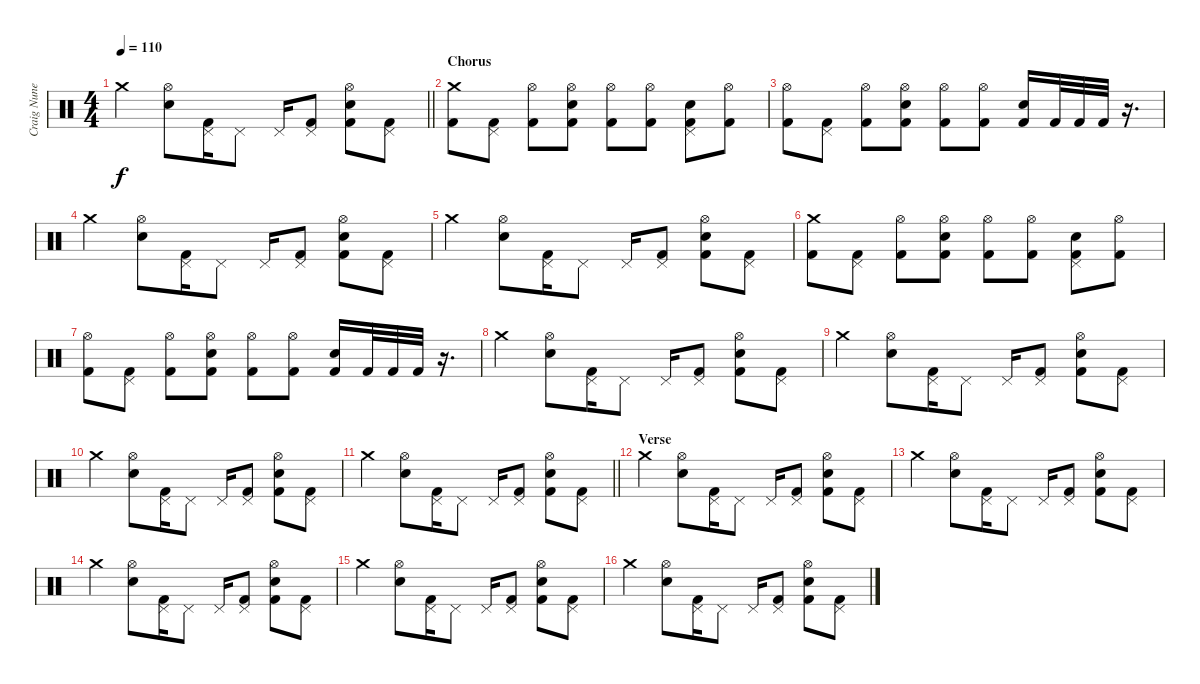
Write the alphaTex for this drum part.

\track ("Craig Nunenmacher" "Craig Nune") {instrument percussion}
\staff {score}
\articulation defaults
\ts (4 4)
\tempo 110
\clef neutral
\barLineRight lightlight
\ks c "Crash medium (hit)".4{dy f}
("Hi-Hat (open)" "Snare (hit) 2").8 ("Pedal Hi-Hat (hit)" "Kick (hit) 2").16 "Pedal Hi-Hat (hit)".8 "Pedal Hi-Hat (hit)".16 ("Pedal Hi-Hat (hit)" "Kick (hit) 2").8 ("Hi-Hat (open)" "Snare (hit) 2" "Kick (hit) 2").8 ("Pedal Hi-Hat (hit)" "Kick (hit) 2").8 |
\section ("" "Chorus")
("Crash medium (hit)" "Kick (hit) 2").8 ("Pedal Hi-Hat (hit)" "Kick (hit) 2").8 ("Hi-Hat (open)" "Kick (hit) 2").8 ("Hi-Hat (open)" "Snare (hit) 2" "Kick (hit) 2").8 ("Hi-Hat (open)" "Kick (hit) 2").8 ("Hi-Hat (open)" "Kick (hit) 2").8 ("Pedal Hi-Hat (hit)" "Snare (hit) 2" "Kick (hit) 2").8 ("Hi-Hat (open)" "Kick (hit) 2").8 |
("Hi-Hat (open)" "Kick (hit) 2").8 ("Pedal Hi-Hat (hit)" "Kick (hit) 2").8 ("Hi-Hat (open)" "Kick (hit) 2").8 ("Hi-Hat (open)" "Snare (hit) 2" "Kick (hit) 2").8 ("Hi-Hat (open)" "Kick (hit) 2").8 ("Hi-Hat (open)" "Kick (hit) 2").8 ("Snare (hit) 2" "Kick (hit) 2").16 "Kick (hit) 2".32 "Kick (hit) 2".32 "Kick (hit) 2".32 r.16{d} |
"Crash medium (hit)".4 ("Hi-Hat (open)" "Snare (hit) 2").8 ("Pedal Hi-Hat (hit)" "Kick (hit) 2").16 "Pedal Hi-Hat (hit)".8 "Pedal Hi-Hat (hit)".16 ("Pedal Hi-Hat (hit)" "Kick (hit) 2").8 ("Hi-Hat (open)" "Snare (hit) 2" "Kick (hit) 2").8 ("Pedal Hi-Hat (hit)" "Kick (hit) 2").8 |
"Crash medium (hit)".4 ("Hi-Hat (open)" "Snare (hit) 2").8 ("Pedal Hi-Hat (hit)" "Kick (hit) 2").16 "Pedal Hi-Hat (hit)".8 "Pedal Hi-Hat (hit)".16 ("Pedal Hi-Hat (hit)" "Kick (hit) 2").8 ("Hi-Hat (open)" "Snare (hit) 2" "Kick (hit) 2").8 ("Pedal Hi-Hat (hit)" "Kick (hit) 2").8 |
("Crash medium (hit)" "Kick (hit) 2").8 ("Pedal Hi-Hat (hit)" "Kick (hit) 2").8 ("Hi-Hat (open)" "Kick (hit) 2").8 ("Hi-Hat (open)" "Snare (hit) 2" "Kick (hit) 2").8 ("Hi-Hat (open)" "Kick (hit) 2").8 ("Hi-Hat (open)" "Kick (hit) 2").8 ("Pedal Hi-Hat (hit)" "Snare (hit) 2" "Kick (hit) 2").8 ("Hi-Hat (open)" "Kick (hit) 2").8 |
("Hi-Hat (open)" "Kick (hit) 2").8 ("Pedal Hi-Hat (hit)" "Kick (hit) 2").8 ("Hi-Hat (open)" "Kick (hit) 2").8 ("Hi-Hat (open)" "Snare (hit) 2" "Kick (hit) 2").8 ("Hi-Hat (open)" "Kick (hit) 2").8 ("Hi-Hat (open)" "Kick (hit) 2").8 ("Snare (hit) 2" "Kick (hit) 2").16 "Kick (hit) 2".32 "Kick (hit) 2".32 "Kick (hit) 2".32 r.16{d} |
"Crash medium (hit)".4 ("Hi-Hat (open)" "Snare (hit) 2").8 ("Pedal Hi-Hat (hit)" "Kick (hit) 2").16 "Pedal Hi-Hat (hit)".8 "Pedal Hi-Hat (hit)".16 ("Pedal Hi-Hat (hit)" "Kick (hit) 2").8 ("Hi-Hat (open)" "Snare (hit) 2" "Kick (hit) 2").8 ("Pedal Hi-Hat (hit)" "Kick (hit) 2").8 |
"Crash medium (hit)".4 ("Hi-Hat (open)" "Snare (hit) 2").8 ("Pedal Hi-Hat (hit)" "Kick (hit) 2").16 "Pedal Hi-Hat (hit)".8 "Pedal Hi-Hat (hit)".16 ("Pedal Hi-Hat (hit)" "Kick (hit) 2").8 ("Hi-Hat (open)" "Snare (hit) 2" "Kick (hit) 2").8 ("Pedal Hi-Hat (hit)" "Kick (hit) 2").8 |
"Crash medium (hit)".4 ("Hi-Hat (open)" "Snare (hit) 2").8 ("Pedal Hi-Hat (hit)" "Kick (hit) 2").16 "Pedal Hi-Hat (hit)".8 "Pedal Hi-Hat (hit)".16 ("Pedal Hi-Hat (hit)" "Kick (hit) 2").8 ("Hi-Hat (open)" "Snare (hit) 2" "Kick (hit) 2").8 ("Pedal Hi-Hat (hit)" "Kick (hit) 2").8 |
\barLineRight lightlight "Crash medium (hit)".4
("Hi-Hat (open)" "Snare (hit) 2").8 ("Pedal Hi-Hat (hit)" "Kick (hit) 2").16 "Pedal Hi-Hat (hit)".8 "Pedal Hi-Hat (hit)".16 ("Pedal Hi-Hat (hit)" "Kick (hit) 2").8 ("Hi-Hat (open)" "Snare (hit) 2" "Kick (hit) 2").8 ("Pedal Hi-Hat (hit)" "Kick (hit) 2").8 |
\section ("" "Verse")
"Crash medium (hit)".4 ("Hi-Hat (open)" "Snare (hit) 2").8 ("Pedal Hi-Hat (hit)" "Kick (hit) 2").16 "Pedal Hi-Hat (hit)".8 "Pedal Hi-Hat (hit)".16 ("Pedal Hi-Hat (hit)" "Kick (hit) 2").8 ("Hi-Hat (open)" "Snare (hit) 2" "Kick (hit) 2").8 ("Pedal Hi-Hat (hit)" "Kick (hit) 2").8 |
"Crash medium (hit)".4 ("Hi-Hat (open)" "Snare (hit) 2").8 ("Pedal Hi-Hat (hit)" "Kick (hit) 2").16 "Pedal Hi-Hat (hit)".8 "Pedal Hi-Hat (hit)".16 ("Pedal Hi-Hat (hit)" "Kick (hit) 2").8 ("Hi-Hat (open)" "Snare (hit) 2" "Kick (hit) 2").8 ("Pedal Hi-Hat (hit)" "Kick (hit) 2").8 |
"Crash medium (hit)".4 ("Hi-Hat (open)" "Snare (hit) 2").8 ("Pedal Hi-Hat (hit)" "Kick (hit) 2").16 "Pedal Hi-Hat (hit)".8 "Pedal Hi-Hat (hit)".16 ("Pedal Hi-Hat (hit)" "Kick (hit) 2").8 ("Hi-Hat (open)" "Snare (hit) 2" "Kick (hit) 2").8 ("Pedal Hi-Hat (hit)" "Kick (hit) 2").8 |
"Crash medium (hit)".4 ("Hi-Hat (open)" "Snare (hit) 2").8 ("Pedal Hi-Hat (hit)" "Kick (hit) 2").16 "Pedal Hi-Hat (hit)".8 "Pedal Hi-Hat (hit)".16 ("Pedal Hi-Hat (hit)" "Kick (hit) 2").8 ("Hi-Hat (open)" "Snare (hit) 2" "Kick (hit) 2").8 ("Pedal Hi-Hat (hit)" "Kick (hit) 2").8 |
"Crash medium (hit)".4 ("Hi-Hat (open)" "Snare (hit) 2").8 ("Pedal Hi-Hat (hit)" "Kick (hit) 2").16 "Pedal Hi-Hat (hit)".8 "Pedal Hi-Hat (hit)".16 ("Pedal Hi-Hat (hit)" "Kick (hit) 2").8 ("Hi-Hat (open)" "Snare (hit) 2" "Kick (hit) 2").8 ("Pedal Hi-Hat (hit)" "Kick (hit) 2").8
